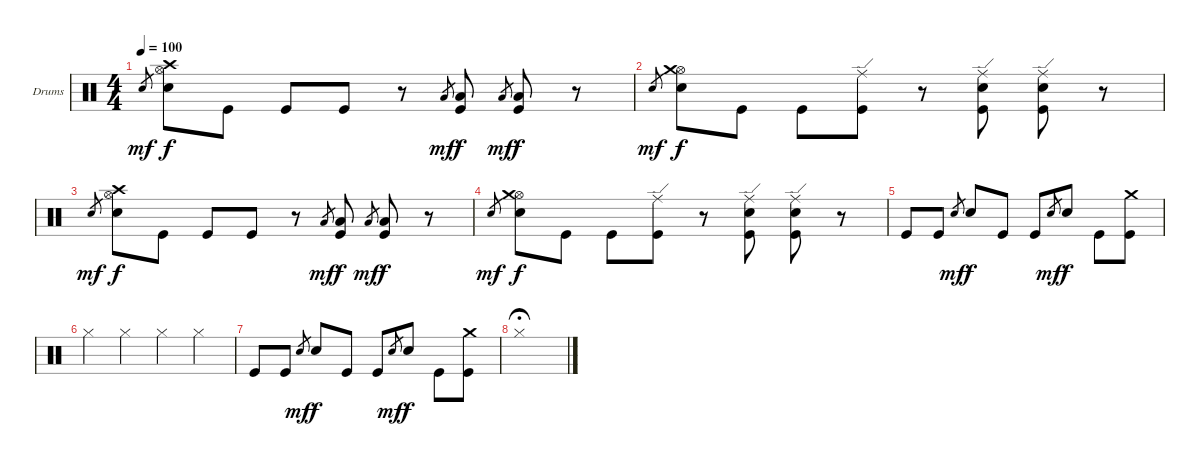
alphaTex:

\defaultSystemsLayout 4
\bracketExtendMode groupsimilarinstruments
\firstSystemTrackNameOrientation horizontal
\otherSystemsTrackNameOrientation horizontal
\track ("Drumkit" "Drums") {instrument percussion}
\staff {score}
\articulation defaults
\ts (4 4)
\tempo 100
\clef neutral
\scale
1.02648
\ks c "Snare (hit) 2".8{gr dy mf}
("Hi-Hat (open)" "Crash high (hit)" "Snare (hit) 2").8{dy f} "Kick (hit)".8 "Kick (hit)".8 "Kick (hit)".8 r.8 "Low Tom (hit)".8{gr dy mf} ("Low Tom (hit)" "Kick (hit)").8{dy f} "Low Tom (hit)".8{gr dy mf} ("Low Tom (hit)" "Kick (hit)").8{dy f} r.8 |
\scale
0.973518 "Snare (hit) 2".8{gr dy mf} ("Hi-Hat (open)" "Crash medium (hit)" "Snare (hit) 2").8{dy f} "Kick (hit)".8 "Kick (hit)".8 ("Ride (edge)" "Kick (hit)").8 r.8 ("Ride (edge)" "Snare (hit) 2" "Kick (hit)").8 ("Ride (edge)" "Snare (hit) 2" "Kick (hit)").8 r.8 |
\scale
1.02648 "Snare (hit) 2".8{gr dy mf} ("Hi-Hat (open)" "Crash high (hit)" "Snare (hit) 2").8{dy f} "Kick (hit)".8 "Kick (hit)".8 "Kick (hit)".8 r.8 "Low Tom (hit)".8{gr dy mf} ("Low Tom (hit)" "Kick (hit)").8{dy f} "Low Tom (hit)".8{gr dy mf} ("Low Tom (hit)" "Kick (hit)").8{dy f} r.8 |
\scale
0.973518 "Snare (hit) 2".8{gr dy mf} ("Hi-Hat (open)" "Crash medium (hit)" "Snare (hit) 2").8{dy f} "Kick (hit)".8 "Kick (hit)".8 ("Ride (edge)" "Kick (hit)").8 r.8 ("Ride (edge)" "Snare (hit) 2" "Kick (hit)").8 ("Ride (edge)" "Snare (hit) 2" "Kick (hit)").8 r.8 |
\scale
1.02648 "Kick (hit)".8 "Kick (hit)".8 "Snare (hit) 2".8{gr dy mf} "Snare (hit) 2".8{dy f} "Kick (hit)".8 "Kick (hit)".8 "Snare (hit) 2".8{gr dy mf} "Snare (hit) 2".8{dy f} "Kick (hit)".8 ("Crash medium (hit)" "Kick (hit)").8 |
\scale
0.973518 "Hi-Hat (closed)".4 "Hi-Hat (closed)".4 "Hi-Hat (closed)".4 "Hi-Hat (closed)".4 |
\scale
1.02648 "Kick (hit)".8 "Kick (hit)".8 "Snare (hit) 2".8{gr dy mf} "Snare (hit) 2".8{dy f} "Kick (hit)".8 "Kick (hit)".8 "Snare (hit) 2".8{gr dy mf} "Snare (hit) 2".8{dy f} "Kick (hit)".8 ("Crash medium (hit)" "Kick (hit)").8 |
\scale
0.973518 "Hi-Hat (closed)".1{fermata (medium 0.7)}
